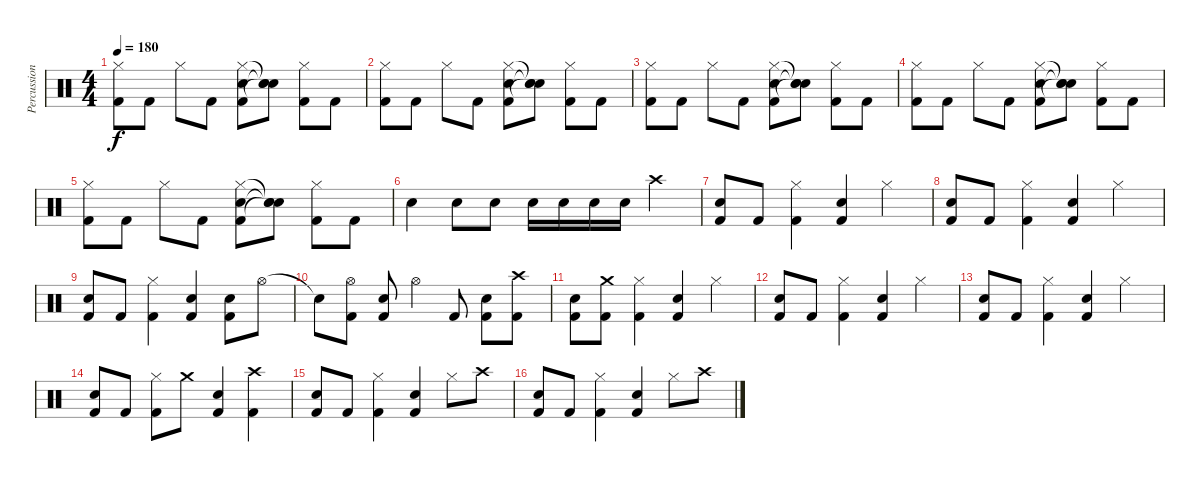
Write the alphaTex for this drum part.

\track ("Percussion" "Percussion") {instrument percussion}
\staff {score}
\articulation defaults
\ts (4 4)
\tempo 180
\clef neutral
\ks c
("Hi-Hat (closed)" "Kick (hit) 2").8{dy f} "Kick (hit) 2".8 "Hi-Hat (closed)".8 "Kick (hit) 2".8 ("Hi-Hat (closed)" "Snare (hit) 2" "Kick (hit) 2").8 ("Snare (hit)"{t} "Snare (hit)"{t} "Snare (hit)"{t}).8 ("Hi-Hat (closed)" "Kick (hit) 2").8 "Kick (hit) 2".8 |
("Hi-Hat (closed)" "Kick (hit) 2").8 "Kick (hit) 2".8 "Hi-Hat (closed)".8 "Kick (hit) 2".8 ("Hi-Hat (closed)" "Snare (hit) 2" "Kick (hit) 2").8 ("Snare (hit)"{t} "Snare (hit)"{t} "Snare (hit)"{t}).8 ("Hi-Hat (closed)" "Kick (hit) 2").8 "Kick (hit) 2".8 |
("Hi-Hat (closed)" "Kick (hit) 2").8 "Kick (hit) 2".8 "Hi-Hat (closed)".8 "Kick (hit) 2".8 ("Hi-Hat (closed)" "Snare (hit) 2" "Kick (hit) 2").8 ("Snare (hit)"{t} "Snare (hit)"{t} "Snare (hit)"{t}).8 ("Hi-Hat (closed)" "Kick (hit) 2").8 "Kick (hit) 2".8 |
("Hi-Hat (closed)" "Kick (hit) 2").8 "Kick (hit) 2".8 "Hi-Hat (closed)".8 "Kick (hit) 2".8 ("Hi-Hat (closed)" "Snare (hit) 2" "Kick (hit) 2").8 ("Snare (hit)"{t} "Snare (hit)"{t} "Snare (hit)"{t}).8 ("Hi-Hat (closed)" "Kick (hit) 2").8 "Kick (hit) 2".8 |
("Hi-Hat (closed)" "Kick (hit) 2").8 "Kick (hit) 2".8 "Hi-Hat (closed)".8 "Kick (hit) 2".8 ("Hi-Hat (closed)" "Snare (hit) 2" "Kick (hit) 2").8 ("Snare (hit)"{t} "Snare (hit)"{t} "Snare (hit)"{t}).8 ("Hi-Hat (closed)" "Kick (hit) 2").8 "Kick (hit) 2".8 |
"Snare (hit) 2".4 "Snare (hit) 2".8 "Snare (hit) 2".8 "Snare (hit) 2".16 "Snare (hit) 2".16 "Snare (hit) 2".16 "Snare (hit) 2".16 "Crash high (hit)".4 |
("Snare (hit) 2" "Kick (hit) 2").8 "Kick (hit) 2".8 ("Hi-Hat (closed)" "Kick (hit) 2").4 ("Snare (hit) 2" "Kick (hit) 2").4 "Hi-Hat (closed)".4 |
("Snare (hit) 2" "Kick (hit) 2").8 "Kick (hit) 2".8 ("Hi-Hat (closed)" "Kick (hit) 2").4 ("Snare (hit) 2" "Kick (hit) 2").4 "Hi-Hat (closed)".4 |
("Snare (hit) 2" "Kick (hit) 2").8 "Kick (hit) 2".8 ("Hi-Hat (closed)" "Kick (hit) 2").4 ("Snare (hit) 2" "Kick (hit) 2").4 ("Snare (hit) 2" "Kick (hit) 2").8 "Hi-Hat (open)".8 |
"Snare (hit)"{t}.8 ("Hi-Hat (open)" "Kick (hit) 2").8 ("Snare (hit) 2" "Kick (hit) 2").8 "Hi-Hat (open)".4 "Kick (hit) 2".8 ("Snare (hit) 2" "Kick (hit) 2").8 ("Crash high (hit)" "Kick (hit) 2").8 |
("Snare (hit) 2" "Kick (hit) 2").8 ("Crash medium (hit)" "Kick (hit) 2").8 ("Hi-Hat (closed)" "Kick (hit) 2").4 ("Snare (hit) 2" "Kick (hit) 2").4 "Hi-Hat (closed)".4 |
("Snare (hit) 2" "Kick (hit) 2").8 "Kick (hit) 2".8 ("Hi-Hat (closed)" "Kick (hit) 2").4 ("Snare (hit) 2" "Kick (hit) 2").4 "Hi-Hat (closed)".4 |
("Snare (hit) 2" "Kick (hit) 2").8 "Kick (hit) 2".8 ("Hi-Hat (closed)" "Kick (hit) 2").4 ("Snare (hit) 2" "Kick (hit) 2").4 "Hi-Hat (closed)".4 |
("Snare (hit) 2" "Kick (hit) 2").8 "Kick (hit) 2".8 ("Hi-Hat (closed)" "Kick (hit) 2").8 "Crash medium (hit)".8 ("Snare (hit) 2" "Kick (hit) 2").4 ("Crash high (hit)" "Kick (hit) 2").4 |
("Snare (hit) 2" "Kick (hit) 2").8 "Kick (hit) 2".8 ("Hi-Hat (closed)" "Kick (hit) 2").4 ("Snare (hit) 2" "Kick (hit) 2").4 "Hi-Hat (closed)".8 "Crash high (hit)".8 |
("Snare (hit) 2" "Kick (hit) 2").8 "Kick (hit) 2".8 ("Hi-Hat (closed)" "Kick (hit) 2").4 ("Snare (hit) 2" "Kick (hit) 2").4 "Hi-Hat (closed)".8 "Crash high (hit)".8
